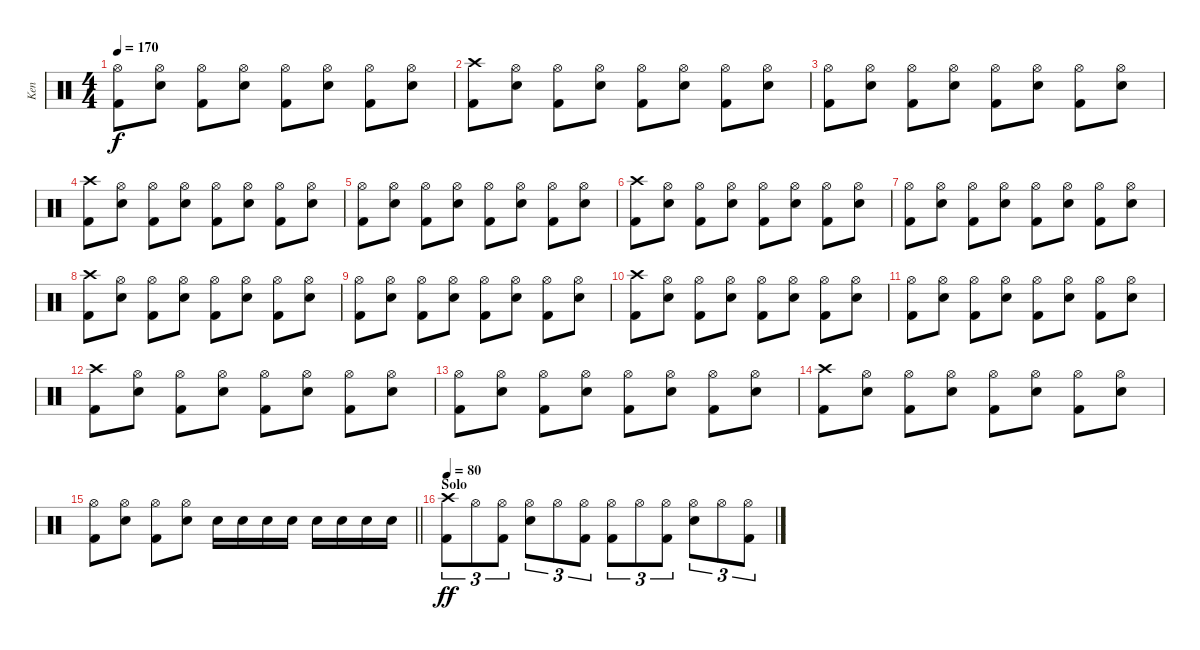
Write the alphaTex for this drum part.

\track ("Ken" "Ken") {instrument percussion}
\staff {score}
\articulation defaults
\ts (4 4)
\tempo 170
\clef neutral
\ks c
("Hi-Hat (open)" "Kick (hit) 2").8{dy f} ("Hi-Hat (open)" "Snare (hit) 2").8 ("Hi-Hat (open)" "Kick (hit) 2").8 ("Hi-Hat (open)" "Snare (hit) 2").8 ("Hi-Hat (open)" "Kick (hit) 2").8 ("Hi-Hat (open)" "Snare (hit) 2").8 ("Hi-Hat (open)" "Kick (hit) 2").8 ("Hi-Hat (open)" "Snare (hit) 2").8 |
("Crash high (hit)" "Kick (hit) 2").8 ("Hi-Hat (open)" "Snare (hit) 2").8 ("Hi-Hat (open)" "Kick (hit) 2").8 ("Hi-Hat (open)" "Snare (hit) 2").8 ("Hi-Hat (open)" "Kick (hit) 2").8 ("Hi-Hat (open)" "Snare (hit) 2").8 ("Hi-Hat (open)" "Kick (hit) 2").8 ("Hi-Hat (open)" "Snare (hit) 2").8 |
("Hi-Hat (open)" "Kick (hit) 2").8 ("Hi-Hat (open)" "Snare (hit) 2").8 ("Hi-Hat (open)" "Kick (hit) 2").8 ("Hi-Hat (open)" "Snare (hit) 2").8 ("Hi-Hat (open)" "Kick (hit) 2").8 ("Hi-Hat (open)" "Snare (hit) 2").8 ("Hi-Hat (open)" "Kick (hit) 2").8 ("Hi-Hat (open)" "Snare (hit) 2").8 |
("Crash high (hit)" "Kick (hit) 2").8 ("Hi-Hat (open)" "Snare (hit) 2").8 ("Hi-Hat (open)" "Kick (hit) 2").8 ("Hi-Hat (open)" "Snare (hit) 2").8 ("Hi-Hat (open)" "Kick (hit) 2").8 ("Hi-Hat (open)" "Snare (hit) 2").8 ("Hi-Hat (open)" "Kick (hit) 2").8 ("Hi-Hat (open)" "Snare (hit) 2").8 |
("Hi-Hat (open)" "Kick (hit) 2").8 ("Hi-Hat (open)" "Snare (hit) 2").8 ("Hi-Hat (open)" "Kick (hit) 2").8 ("Hi-Hat (open)" "Snare (hit) 2").8 ("Hi-Hat (open)" "Kick (hit) 2").8 ("Hi-Hat (open)" "Snare (hit) 2").8 ("Hi-Hat (open)" "Kick (hit) 2").8 ("Hi-Hat (open)" "Snare (hit) 2").8 |
("Crash high (hit)" "Kick (hit) 2").8 ("Hi-Hat (open)" "Snare (hit) 2").8 ("Hi-Hat (open)" "Kick (hit) 2").8 ("Hi-Hat (open)" "Snare (hit) 2").8 ("Hi-Hat (open)" "Kick (hit) 2").8 ("Hi-Hat (open)" "Snare (hit) 2").8 ("Hi-Hat (open)" "Kick (hit) 2").8 ("Hi-Hat (open)" "Snare (hit) 2").8 |
("Hi-Hat (open)" "Kick (hit) 2").8 ("Hi-Hat (open)" "Snare (hit) 2").8 ("Hi-Hat (open)" "Kick (hit) 2").8 ("Hi-Hat (open)" "Snare (hit) 2").8 ("Hi-Hat (open)" "Kick (hit) 2").8 ("Hi-Hat (open)" "Snare (hit) 2").8 ("Hi-Hat (open)" "Kick (hit) 2").8 ("Hi-Hat (open)" "Snare (hit) 2").8 |
("Crash high (hit)" "Kick (hit) 2").8 ("Hi-Hat (open)" "Snare (hit) 2").8 ("Hi-Hat (open)" "Kick (hit) 2").8 ("Hi-Hat (open)" "Snare (hit) 2").8 ("Hi-Hat (open)" "Kick (hit) 2").8 ("Hi-Hat (open)" "Snare (hit) 2").8 ("Hi-Hat (open)" "Kick (hit) 2").8 ("Hi-Hat (open)" "Snare (hit) 2").8 |
("Hi-Hat (open)" "Kick (hit) 2").8 ("Hi-Hat (open)" "Snare (hit) 2").8 ("Hi-Hat (open)" "Kick (hit) 2").8 ("Hi-Hat (open)" "Snare (hit) 2").8 ("Hi-Hat (open)" "Kick (hit) 2").8 ("Hi-Hat (open)" "Snare (hit) 2").8 ("Hi-Hat (open)" "Kick (hit) 2").8 ("Hi-Hat (open)" "Snare (hit) 2").8 |
("Crash high (hit)" "Kick (hit) 2").8 ("Hi-Hat (open)" "Snare (hit) 2").8 ("Hi-Hat (open)" "Kick (hit) 2").8 ("Hi-Hat (open)" "Snare (hit) 2").8 ("Hi-Hat (open)" "Kick (hit) 2").8 ("Hi-Hat (open)" "Snare (hit) 2").8 ("Hi-Hat (open)" "Kick (hit) 2").8 ("Hi-Hat (open)" "Snare (hit) 2").8 |
("Hi-Hat (open)" "Kick (hit) 2").8 ("Hi-Hat (open)" "Snare (hit) 2").8 ("Hi-Hat (open)" "Kick (hit) 2").8 ("Hi-Hat (open)" "Snare (hit) 2").8 ("Hi-Hat (open)" "Kick (hit) 2").8 ("Hi-Hat (open)" "Snare (hit) 2").8 ("Hi-Hat (open)" "Kick (hit) 2").8 ("Hi-Hat (open)" "Snare (hit) 2").8 |
("Crash high (hit)" "Kick (hit) 2").8 ("Hi-Hat (open)" "Snare (hit) 2").8 ("Hi-Hat (open)" "Kick (hit) 2").8 ("Hi-Hat (open)" "Snare (hit) 2").8 ("Hi-Hat (open)" "Kick (hit) 2").8 ("Hi-Hat (open)" "Snare (hit) 2").8 ("Hi-Hat (open)" "Kick (hit) 2").8 ("Hi-Hat (open)" "Snare (hit) 2").8 |
("Hi-Hat (open)" "Kick (hit) 2").8 ("Hi-Hat (open)" "Snare (hit) 2").8 ("Hi-Hat (open)" "Kick (hit) 2").8 ("Hi-Hat (open)" "Snare (hit) 2").8 ("Hi-Hat (open)" "Kick (hit) 2").8 ("Hi-Hat (open)" "Snare (hit) 2").8 ("Hi-Hat (open)" "Kick (hit) 2").8 ("Hi-Hat (open)" "Snare (hit) 2").8 |
("Crash high (hit)" "Kick (hit) 2").8 ("Hi-Hat (open)" "Snare (hit) 2").8 ("Hi-Hat (open)" "Kick (hit) 2").8 ("Hi-Hat (open)" "Snare (hit) 2").8 ("Hi-Hat (open)" "Kick (hit) 2").8 ("Hi-Hat (open)" "Snare (hit) 2").8 ("Hi-Hat (open)" "Kick (hit) 2").8 ("Hi-Hat (open)" "Snare (hit) 2").8 |
\barLineRight lightlight
("Hi-Hat (open)" "Kick (hit) 2").8 ("Hi-Hat (open)" "Snare (hit) 2").8 ("Hi-Hat (open)" "Kick (hit) 2").8 ("Hi-Hat (open)" "Snare (hit) 2").8 "Snare (hit) 2".16 "Snare (hit) 2".16 "Snare (hit) 2".16 "Snare (hit) 2".16 "Snare (hit) 2".16 "Snare (hit) 2".16 "Snare (hit) 2".16 "Snare (hit) 2".16 |
\section ("" "Solo")
\tempo 80
("Crash high (hit)" "Kick (hit) 2").8{tu (3 2) dy ff} "Hi-Hat (open)".8{tu (3 2)} ("Hi-Hat (open)" "Kick (hit) 2").8{tu (3 2)} ("Hi-Hat (open)" "Snare (hit) 2").8{tu (3 2)} "Hi-Hat (open)".8{tu (3 2)} ("Hi-Hat (open)" "Kick (hit) 2").8{tu (3 2)} ("Hi-Hat (open)" "Kick (hit) 2").8{tu (3 2)} "Hi-Hat (open)".8{tu (3 2)} ("Hi-Hat (open)" "Kick (hit) 2").8{tu (3 2)} ("Hi-Hat (open)" "Snare (hit) 2").8{tu (3 2)} "Hi-Hat (open)".8{tu (3 2)} ("Hi-Hat (open)" "Kick (hit) 2").8{tu (3 2)}
